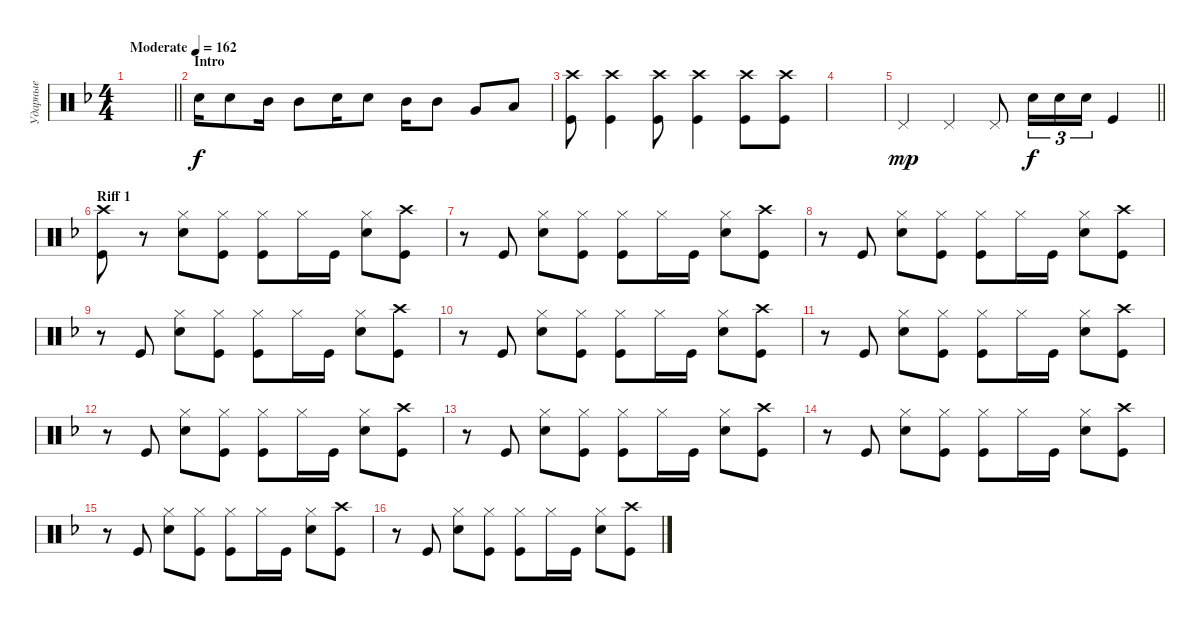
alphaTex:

\track ("Ударные" "Ударные") {instrument percussion}
\staff {score}
\articulation defaults
\ts (4 4)
\tempo (162 "Moderate")
\clef neutral
\barLineRight lightlight
\ks dminor
|
\section ("" "Intro")
"Snare (hit) 2".16 "Snare (hit) 2".8 "Mid Tom (hit)".16 "Mid Tom (hit)".8 "Snare (hit) 2".16 "Snare (hit) 2".8 "Mid Tom (hit)".16 "Mid Tom (hit)".8 "Very Low Tom (hit)".8 "Low Floor Tom (hit)".8 |
("Kick (hit)" "Crash high (hit)").8 ("Kick (hit)" "Crash high (hit)").4 ("Kick (hit)" "Crash high (hit)").8 ("Kick (hit)" "Crash high (hit)").4 ("Kick (hit)" "Crash high (hit)").8 ("Kick (hit)" "Crash high (hit)").8 |
|
\barLineRight lightlight "Pedal Hi-Hat (hit)".4{dy mp} "Pedal Hi-Hat (hit)".4 "Pedal Hi-Hat (hit)".8 "Snare (hit) 2".16{tu (3 2) dy f} "Snare (hit) 2".16{tu (3 2)} "Snare (hit) 2".16{tu (3 2)} "Kick (hit)".4
|
\section ("" "Riff 1")
("Kick (hit)" "Crash high (hit)").8 r.8 ("Hi-Hat (closed)" "Snare (hit) 2").8 ("Hi-Hat (closed)" "Kick (hit)").8 ("Hi-Hat (closed)" "Kick (hit)").8 "Hi-Hat (closed)".16 "Kick (hit)".16 ("Hi-Hat (closed)" "Snare (hit) 2").8 ("Crash high (hit)" "Kick (hit)").8 |
r.8 "Kick (hit)".8 ("Hi-Hat (closed)" "Snare (hit) 2").8 ("Hi-Hat (closed)" "Kick (hit)").8 ("Hi-Hat (closed)" "Kick (hit)").8 "Hi-Hat (closed)".16 "Kick (hit)".16 ("Hi-Hat (closed)" "Snare (hit) 2").8 ("Crash high (hit)" "Kick (hit)").8 |
r.8 "Kick (hit)".8 ("Hi-Hat (closed)" "Snare (hit) 2").8 ("Hi-Hat (closed)" "Kick (hit)").8 ("Hi-Hat (closed)" "Kick (hit)").8 "Hi-Hat (closed)".16 "Kick (hit)".16 ("Hi-Hat (closed)" "Snare (hit) 2").8 ("Crash high (hit)" "Kick (hit)").8 |
r.8 "Kick (hit)".8 ("Hi-Hat (closed)" "Snare (hit) 2").8 ("Hi-Hat (closed)" "Kick (hit)").8 ("Hi-Hat (closed)" "Kick (hit)").8 "Hi-Hat (closed)".16 "Kick (hit)".16 ("Hi-Hat (closed)" "Snare (hit) 2").8 ("Crash high (hit)" "Kick (hit)").8 |
r.8 "Kick (hit)".8 ("Hi-Hat (closed)" "Snare (hit) 2").8 ("Hi-Hat (closed)" "Kick (hit)").8 ("Hi-Hat (closed)" "Kick (hit)").8 "Hi-Hat (closed)".16 "Kick (hit)".16 ("Hi-Hat (closed)" "Snare (hit) 2").8 ("Crash high (hit)" "Kick (hit)").8 |
r.8 "Kick (hit)".8 ("Hi-Hat (closed)" "Snare (hit) 2").8 ("Hi-Hat (closed)" "Kick (hit)").8 ("Hi-Hat (closed)" "Kick (hit)").8 "Hi-Hat (closed)".16 "Kick (hit)".16 ("Hi-Hat (closed)" "Snare (hit) 2").8 ("Crash high (hit)" "Kick (hit)").8 |
r.8 "Kick (hit)".8 ("Hi-Hat (closed)" "Snare (hit) 2").8 ("Hi-Hat (closed)" "Kick (hit)").8 ("Hi-Hat (closed)" "Kick (hit)").8 "Hi-Hat (closed)".16 "Kick (hit)".16 ("Hi-Hat (closed)" "Snare (hit) 2").8 ("Crash high (hit)" "Kick (hit)").8 |
r.8 "Kick (hit)".8 ("Hi-Hat (closed)" "Snare (hit) 2").8 ("Hi-Hat (closed)" "Kick (hit)").8 ("Hi-Hat (closed)" "Kick (hit)").8 "Hi-Hat (closed)".16 "Kick (hit)".16 ("Hi-Hat (closed)" "Snare (hit) 2").8 ("Crash high (hit)" "Kick (hit)").8 |
r.8 "Kick (hit)".8 ("Hi-Hat (closed)" "Snare (hit) 2").8 ("Hi-Hat (closed)" "Kick (hit)").8 ("Hi-Hat (closed)" "Kick (hit)").8 "Hi-Hat (closed)".16 "Kick (hit)".16 ("Hi-Hat (closed)" "Snare (hit) 2").8 ("Crash high (hit)" "Kick (hit)").8 |
r.8 "Kick (hit)".8 ("Hi-Hat (closed)" "Snare (hit) 2").8 ("Hi-Hat (closed)" "Kick (hit)").8 ("Hi-Hat (closed)" "Kick (hit)").8 "Hi-Hat (closed)".16 "Kick (hit)".16 ("Hi-Hat (closed)" "Snare (hit) 2").8 ("Crash high (hit)" "Kick (hit)").8 |
r.8 "Kick (hit)".8 ("Hi-Hat (closed)" "Snare (hit) 2").8 ("Hi-Hat (closed)" "Kick (hit)").8 ("Hi-Hat (closed)" "Kick (hit)").8 "Hi-Hat (closed)".16 "Kick (hit)".16 ("Hi-Hat (closed)" "Snare (hit) 2").8 ("Crash high (hit)" "Kick (hit)").8
